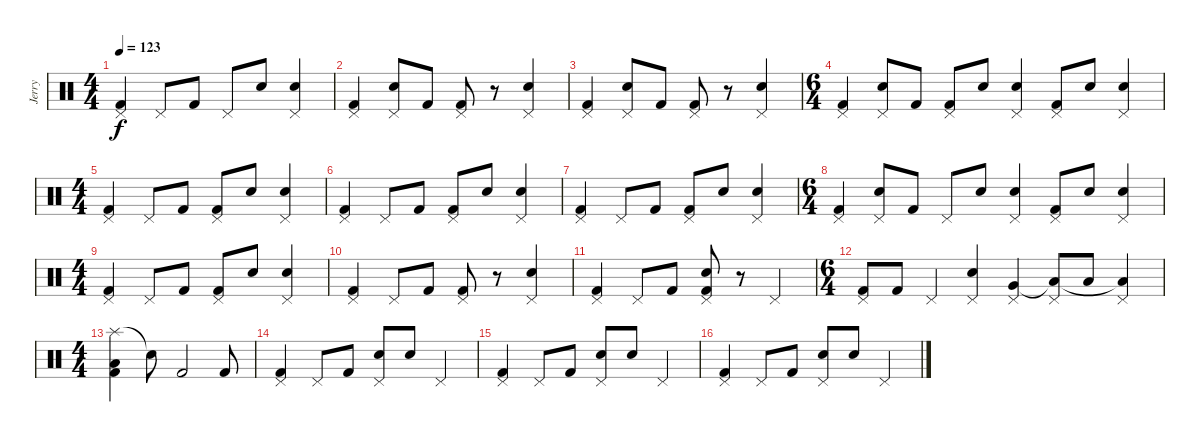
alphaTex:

\track ("Jerry" "Jerry") {instrument percussion}
\staff {score}
\articulation defaults
\ts (4 4)
\tempo 123
\clef neutral
\ks c
("Pedal Hi-Hat (hit)" "Kick (hit) 2").4{dy f} "Pedal Hi-Hat (hit)".8 "Kick (hit) 2".8 "Pedal Hi-Hat (hit)".8 "Snare (hit) 2".8 ("Pedal Hi-Hat (hit)" "Snare (hit) 2").4 |
("Pedal Hi-Hat (hit)" "Kick (hit) 2").4 ("Pedal Hi-Hat (hit)" "Snare (hit) 2").8 "Kick (hit) 2".8 ("Pedal Hi-Hat (hit)" "Kick (hit) 2").8 r.8 ("Pedal Hi-Hat (hit)" "Snare (hit) 2").4 |
("Pedal Hi-Hat (hit)" "Kick (hit) 2").4 ("Pedal Hi-Hat (hit)" "Snare (hit) 2").8 "Kick (hit) 2".8 ("Pedal Hi-Hat (hit)" "Kick (hit) 2").8 r.8 ("Pedal Hi-Hat (hit)" "Snare (hit) 2").4 |
\ts (6 4)
("Pedal Hi-Hat (hit)" "Kick (hit) 2").4 ("Pedal Hi-Hat (hit)" "Snare (hit) 2").8 "Kick (hit) 2".8 ("Pedal Hi-Hat (hit)" "Kick (hit) 2").8 "Snare (hit) 2".8 ("Pedal Hi-Hat (hit)" "Snare (hit) 2").4 ("Pedal Hi-Hat (hit)" "Kick (hit) 2").8 "Snare (hit) 2".8 ("Pedal Hi-Hat (hit)" "Snare (hit) 2").4 |
\ts (4 4)
("Pedal Hi-Hat (hit)" "Kick (hit) 2").4 "Pedal Hi-Hat (hit)".8 "Kick (hit) 2".8 ("Pedal Hi-Hat (hit)" "Kick (hit) 2").8 "Snare (hit) 2".8 ("Pedal Hi-Hat (hit)" "Snare (hit) 2").4 |
("Pedal Hi-Hat (hit)" "Kick (hit) 2").4 "Pedal Hi-Hat (hit)".8 "Kick (hit) 2".8 ("Pedal Hi-Hat (hit)" "Kick (hit) 2").8 "Snare (hit) 2".8 ("Pedal Hi-Hat (hit)" "Snare (hit) 2").4 |
("Pedal Hi-Hat (hit)" "Kick (hit) 2").4 "Pedal Hi-Hat (hit)".8 "Kick (hit) 2".8 ("Pedal Hi-Hat (hit)" "Kick (hit) 2").8 "Snare (hit) 2".8 ("Pedal Hi-Hat (hit)" "Snare (hit) 2").4 |
\ts (6 4)
("Pedal Hi-Hat (hit)" "Kick (hit) 2").4 ("Pedal Hi-Hat (hit)" "Snare (hit) 2").8 "Kick (hit) 2".8 "Pedal Hi-Hat (hit)".8 "Snare (hit) 2".8 ("Pedal Hi-Hat (hit)" "Snare (hit) 2").4 ("Pedal Hi-Hat (hit)" "Kick (hit) 2").8 "Snare (hit) 2".8 ("Pedal Hi-Hat (hit)" "Snare (hit) 2").4 |
\ts (4 4)
("Pedal Hi-Hat (hit)" "Kick (hit) 2").4 "Pedal Hi-Hat (hit)".8 "Kick (hit) 2".8 ("Pedal Hi-Hat (hit)" "Kick (hit) 2").8 "Snare (hit) 2".8 ("Pedal Hi-Hat (hit)" "Snare (hit) 2").4 |
("Pedal Hi-Hat (hit)" "Kick (hit) 2").4 "Pedal Hi-Hat (hit)".8 "Kick (hit) 2".8 ("Pedal Hi-Hat (hit)" "Kick (hit) 2").8 r.8 ("Pedal Hi-Hat (hit)" "Snare (hit) 2").4 |
("Pedal Hi-Hat (hit)" "Kick (hit) 2").4 "Pedal Hi-Hat (hit)".8 "Kick (hit) 2".8 ("Pedal Hi-Hat (hit)" "Snare (hit) 2" "Kick (hit) 2").8 r.8 "Pedal Hi-Hat (hit)".4 |
\ts (6 4)
("Pedal Hi-Hat (hit)" "Kick (hit) 2").8 "Kick (hit) 2".8 "Pedal Hi-Hat (hit)".4 ("Pedal Hi-Hat (hit)" "Snare (hit) 2").4 ("Pedal Hi-Hat (hit)" "Very Low Tom (hit)").4 ("Pedal Hi-Hat (hit)" "Low Tom (hit)"{t}).8 "Low Tom (hit)".8 ("Pedal Hi-Hat (hit)" "Low Floor Tom (hit)"{t}).4 |
\ts (4 4)
("Splash (hit)" "Low Floor Tom (hit)" "Kick (hit) 2").4 "Snare (hit)"{t}.8 "Kick (hit) 2".2 "Kick (hit) 2".8 |
("Pedal Hi-Hat (hit)" "Kick (hit) 2").4 "Pedal Hi-Hat (hit)".8 "Kick (hit) 2".8 ("Pedal Hi-Hat (hit)" "Snare (hit) 2").8 "Snare (hit) 2".8 "Pedal Hi-Hat (hit)".4 |
("Pedal Hi-Hat (hit)" "Kick (hit) 2").4 "Pedal Hi-Hat (hit)".8 "Kick (hit) 2".8 ("Pedal Hi-Hat (hit)" "Snare (hit) 2").8 "Snare (hit) 2".8 "Pedal Hi-Hat (hit)".4 |
("Pedal Hi-Hat (hit)" "Kick (hit) 2").4 "Pedal Hi-Hat (hit)".8 "Kick (hit) 2".8 ("Pedal Hi-Hat (hit)" "Snare (hit) 2").8 "Snare (hit) 2".8 "Pedal Hi-Hat (hit)".4
